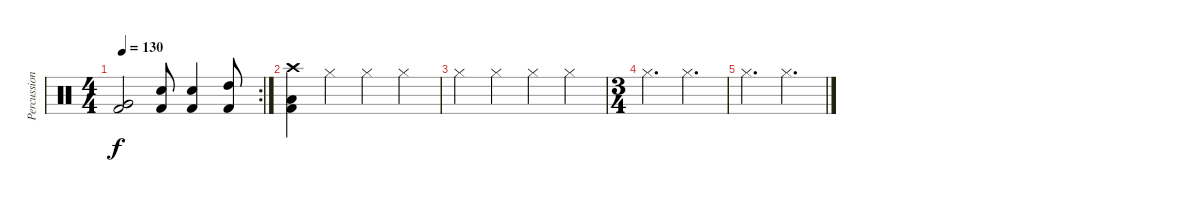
\track ("Percussioni" "Percussion") {instrument percussion}
\staff {score}
\articulation defaults
\rc 2
\ts (4 4)
\tempo 130
\clef neutral
\ks c
("Kick (hit) 2" "Very Low Tom (hit)").2{dy f} ("Snare (hit) 2" "Kick (hit) 2").8 ("Snare (hit) 2" "Kick (hit) 2").4 ("High Tom (hit)" "Kick (hit) 2").8 |
("Kick (hit) 2" "Low Tom (hit)" "Crash high (hit)").4 "Hi-Hat (closed)".4 "Hi-Hat (closed)".4 "Hi-Hat (closed)".4 |
"Hi-Hat (closed)".4 "Hi-Hat (closed)".4 "Hi-Hat (closed)".4 "Hi-Hat (closed)".4 |
\ts (3 4)
"Hi-Hat (closed)".4{d} "Hi-Hat (closed)".4{d} |
"Hi-Hat (closed)".4{d} "Hi-Hat (closed)".4{d}
